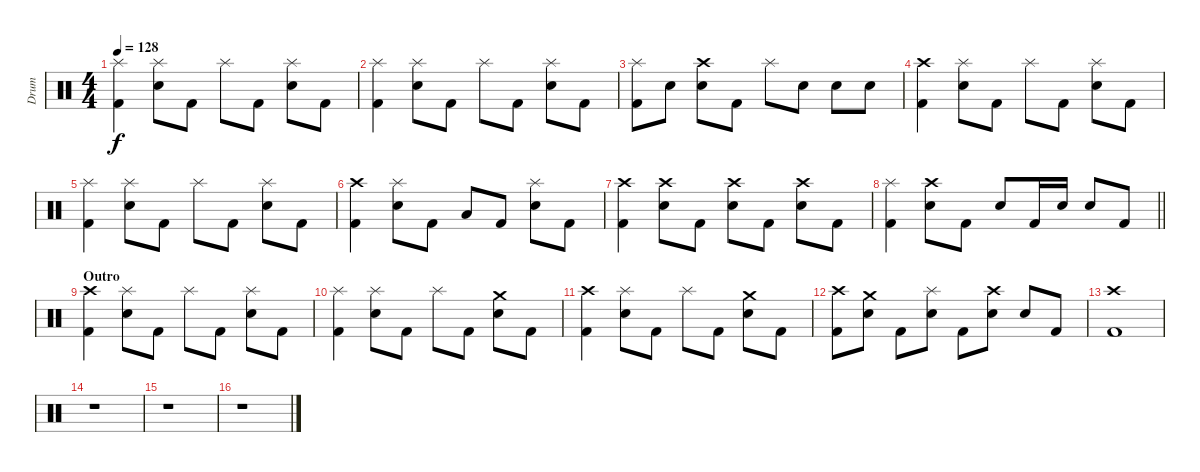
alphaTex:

\track ("Drum" "Drum") {instrument percussion}
\staff {score}
\articulation defaults
\ts (4 4)
\tempo 128
\clef neutral
\ks c
("Splash (hit)" "Kick (hit) 2").4{dy f} ("Splash (hit)" "Electric Snare (hit)").8 "Kick (hit) 2".8 "Splash (hit)".8 "Kick (hit) 2".8 ("Splash (hit)" "Electric Snare (hit)").8 "Kick (hit) 2".8 |
("Splash (hit)" "Kick (hit) 2").4 ("Splash (hit)" "Electric Snare (hit)").8 "Kick (hit) 2".8 "Splash (hit)".8 "Kick (hit) 2".8 ("Splash (hit)" "Electric Snare (hit)").8 "Kick (hit) 2".8 |
("Splash (hit)" "Kick (hit) 2").8 "Electric Snare (hit)".8 ("Crash high (hit)" "Electric Snare (hit)").8 "Kick (hit) 2".8 "Splash (hit)".8 "Electric Snare (hit)".8 "Electric Snare (hit)".8 "Electric Snare (hit)".8 |
("Crash high (hit)" "Kick (hit) 2").4 ("Splash (hit)" "Electric Snare (hit)").8 "Kick (hit) 2".8 "Splash (hit)".8 "Kick (hit) 2".8 ("Splash (hit)" "Electric Snare (hit)").8 "Kick (hit) 2".8 |
("Splash (hit)" "Kick (hit) 2").4 ("Splash (hit)" "Electric Snare (hit)").8 "Kick (hit) 2".8 "Splash (hit)".8 "Kick (hit) 2".8 ("Splash (hit)" "Electric Snare (hit)").8 "Kick (hit) 2".8 |
("Crash high (hit)" "Kick (hit) 2").4 ("Splash (hit)" "Electric Snare (hit)").8 "Kick (hit) 2".8 "Low Tom (hit)".8 "Kick (hit) 2".8 ("Splash (hit)" "Electric Snare (hit)").8 "Kick (hit) 2".8 |
("Crash high (hit)" "Kick (hit) 2").4 ("Crash high (hit)" "Electric Snare (hit)").8 "Kick (hit) 2".8 ("Crash high (hit)" "Electric Snare (hit)").8 "Kick (hit) 2".8 ("Crash high (hit)" "Electric Snare (hit)").8 "Kick (hit) 2".8 |
\barLineRight lightlight
("Splash (hit)" "Kick (hit) 2").4 ("Crash high (hit)" "Electric Snare (hit)").8 "Kick (hit) 2".8 "Electric Snare (hit)".8 "Kick (hit) 2".16 "Electric Snare (hit)".16 "Electric Snare (hit)".8 "Kick (hit) 2".8 |
\section ("" "Outro")
("Crash high (hit)" "Kick (hit) 2").4 ("Splash (hit)" "Electric Snare (hit)").8 "Kick (hit) 2".8 "Splash (hit)".8 "Kick (hit) 2".8 ("Splash (hit)" "Electric Snare (hit)").8 "Kick (hit) 2".8 |
("Splash (hit)" "Kick (hit) 2").4 ("Splash (hit)" "Electric Snare (hit)").8 "Kick (hit) 2".8 "Splash (hit)".8 "Kick (hit) 2".8 ("Crash medium (hit)" "Electric Snare (hit)").8 "Kick (hit) 2".8 |
("Crash high (hit)" "Kick (hit) 2").4 ("Splash (hit)" "Electric Snare (hit)").8 "Kick (hit) 2".8 "Splash (hit)".8 "Kick (hit) 2".8 ("Crash medium (hit)" "Electric Snare (hit)").8 "Kick (hit) 2".8 |
("Crash high (hit)" "Kick (hit) 2").8 ("Crash medium (hit)" "Electric Snare (hit)").8 "Kick (hit) 2".8 ("Splash (hit)" "Electric Snare (hit)").8 "Kick (hit) 2".8 ("Crash high (hit)" "Electric Snare (hit)").8 "Electric Snare (hit)".8 "Kick (hit) 2".8 |
("Crash high (hit)" "Kick (hit) 2").1 |
r.1 |
r.1 |
r.1
